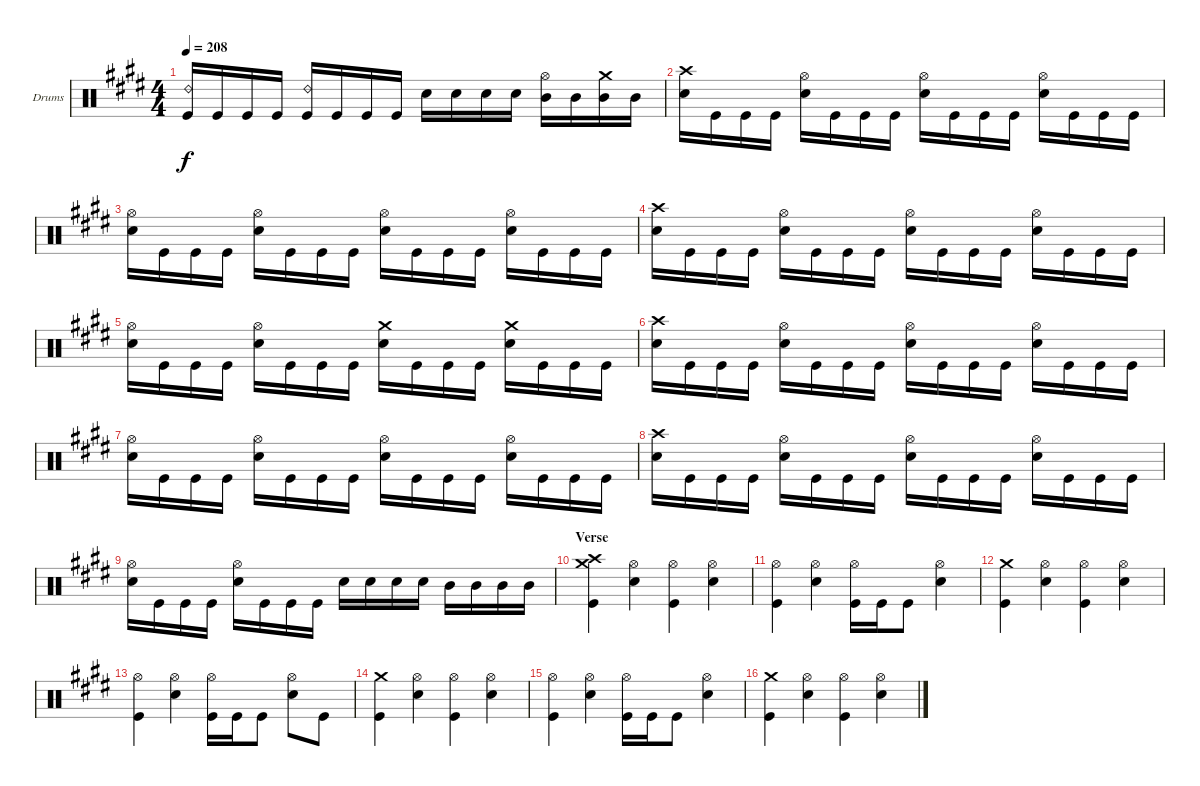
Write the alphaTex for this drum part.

\defaultSystemsLayout 4
\bracketExtendMode groupsimilarinstruments
\firstSystemTrackNameOrientation horizontal
\otherSystemsTrackNameOrientation horizontal
\track ("Corey Friedlander - Drums" "Drums") {instrument percussion}
\staff {score}
\articulation defaults
\ts (4 4)
\tempo 208
\clef neutral
\ks c#minor
("Kick (hit)" "Ride (bell) 2").16{dy f} "Kick (hit)".16 "Kick (hit)".16 "Kick (hit)".16 ("Kick (hit)" "Ride (bell) 2").16 "Kick (hit)".16 "Kick (hit)".16 "Kick (hit)".16 "Snare (hit) 2".16 "Snare (hit) 2".16 "Snare (hit) 2".16 "Snare (hit) 2".16 ("Mid Tom (hit)" "Hi-Hat (open)").16 "Mid Tom (hit)".16 ("Mid Tom (hit)" "Crash medium (hit)").16 "Mid Tom (hit)".16 |
("Snare (hit) 2" "Crash high (hit)").16 "Kick (hit)".16 "Kick (hit)".16 "Kick (hit)".16 ("Snare (hit) 2" "Hi-Hat (open)").16 "Kick (hit)".16 "Kick (hit)".16 "Kick (hit)".16 ("Snare (hit) 2" "Hi-Hat (open)").16 "Kick (hit)".16 "Kick (hit)".16 "Kick (hit)".16 ("Snare (hit) 2" "Hi-Hat (open)").16 "Kick (hit)".16 "Kick (hit)".16 "Kick (hit)".16 |
("Snare (hit) 2" "Hi-Hat (open)").16 "Kick (hit)".16 "Kick (hit)".16 "Kick (hit)".16 ("Snare (hit) 2" "Hi-Hat (open)").16 "Kick (hit)".16 "Kick (hit)".16 "Kick (hit)".16 ("Snare (hit) 2" "Hi-Hat (open)").16 "Kick (hit)".16 "Kick (hit)".16 "Kick (hit)".16 ("Snare (hit) 2" "Hi-Hat (open)").16 "Kick (hit)".16 "Kick (hit)".16 "Kick (hit)".16 |
("Snare (hit) 2" "Crash high (hit)").16 "Kick (hit)".16 "Kick (hit)".16 "Kick (hit)".16 ("Snare (hit) 2" "Hi-Hat (open)").16 "Kick (hit)".16 "Kick (hit)".16 "Kick (hit)".16 ("Snare (hit) 2" "Hi-Hat (open)").16 "Kick (hit)".16 "Kick (hit)".16 "Kick (hit)".16 ("Snare (hit) 2" "Hi-Hat (open)").16 "Kick (hit)".16 "Kick (hit)".16 "Kick (hit)".16 |
("Snare (hit) 2" "Hi-Hat (open)").16 "Kick (hit)".16 "Kick (hit)".16 "Kick (hit)".16 ("Snare (hit) 2" "Hi-Hat (open)").16 "Kick (hit)".16 "Kick (hit)".16 "Kick (hit)".16 ("Snare (hit) 2" "Crash medium (hit)").16 "Kick (hit)".16 "Kick (hit)".16 "Kick (hit)".16 ("Snare (hit) 2" "Crash medium (hit)").16 "Kick (hit)".16 "Kick (hit)".16 "Kick (hit)".16 |
("Snare (hit) 2" "Crash high (hit)").16 "Kick (hit)".16 "Kick (hit)".16 "Kick (hit)".16 ("Snare (hit) 2" "Hi-Hat (open)").16 "Kick (hit)".16 "Kick (hit)".16 "Kick (hit)".16 ("Snare (hit) 2" "Hi-Hat (open)").16 "Kick (hit)".16 "Kick (hit)".16 "Kick (hit)".16 ("Snare (hit) 2" "Hi-Hat (open)").16 "Kick (hit)".16 "Kick (hit)".16 "Kick (hit)".16 |
("Snare (hit) 2" "Hi-Hat (open)").16 "Kick (hit)".16 "Kick (hit)".16 "Kick (hit)".16 ("Snare (hit) 2" "Hi-Hat (open)").16 "Kick (hit)".16 "Kick (hit)".16 "Kick (hit)".16 ("Snare (hit) 2" "Hi-Hat (open)").16 "Kick (hit)".16 "Kick (hit)".16 "Kick (hit)".16 ("Snare (hit) 2" "Hi-Hat (open)").16 "Kick (hit)".16 "Kick (hit)".16 "Kick (hit)".16 |
("Snare (hit) 2" "Crash high (hit)").16 "Kick (hit)".16 "Kick (hit)".16 "Kick (hit)".16 ("Snare (hit) 2" "Hi-Hat (open)").16 "Kick (hit)".16 "Kick (hit)".16 "Kick (hit)".16 ("Snare (hit) 2" "Hi-Hat (open)").16 "Kick (hit)".16 "Kick (hit)".16 "Kick (hit)".16 ("Snare (hit) 2" "Hi-Hat (open)").16 "Kick (hit)".16 "Kick (hit)".16 "Kick (hit)".16 |
("Snare (hit) 2" "Hi-Hat (open)").16 "Kick (hit)".16 "Kick (hit)".16 "Kick (hit)".16 ("Snare (hit) 2" "Hi-Hat (open)").16 "Kick (hit)".16 "Kick (hit)".16 "Kick (hit)".16 "Snare (hit) 2".16 "Snare (hit) 2".16 "Snare (hit) 2".16 "Snare (hit) 2".16 "Mid Tom (hit)".16 "Mid Tom (hit)".16 "Mid Tom (hit)".16 "Mid Tom (hit)".16 |
\section ("" "Verse")
("Kick (hit)" "Crash medium (hit)" "Crash high (hit)").4 ("Snare (hit) 2" "Hi-Hat (open)").4 ("Hi-Hat (open)" "Kick (hit)").4 ("Snare (hit) 2" "Hi-Hat (open)").4 |
("Hi-Hat (open)" "Kick (hit)").4 ("Snare (hit) 2" "Hi-Hat (open)").4 ("Kick (hit)" "Hi-Hat (open)").16 "Kick (hit)".16 "Kick (hit)".8 ("Hi-Hat (open)" "Snare (hit) 2").4 |
("Kick (hit)" "Crash medium (hit)").4 ("Snare (hit) 2" "Hi-Hat (open)").4 ("Hi-Hat (open)" "Kick (hit)").4 ("Snare (hit) 2" "Hi-Hat (open)").4 |
("Hi-Hat (open)" "Kick (hit)").4 ("Snare (hit) 2" "Hi-Hat (open)").4 ("Kick (hit)" "Hi-Hat (open)").16 "Kick (hit)".16 "Kick (hit)".8 ("Hi-Hat (open)" "Snare (hit) 2").8 "Kick (hit)".8 |
("Kick (hit)" "Crash medium (hit)").4 ("Snare (hit) 2" "Hi-Hat (open)").4 ("Hi-Hat (open)" "Kick (hit)").4 ("Snare (hit) 2" "Hi-Hat (open)").4 |
("Hi-Hat (open)" "Kick (hit)").4 ("Snare (hit) 2" "Hi-Hat (open)").4 ("Kick (hit)" "Hi-Hat (open)").16 "Kick (hit)".16 "Kick (hit)".8 ("Hi-Hat (open)" "Snare (hit) 2").4 |
("Kick (hit)" "Crash medium (hit)").4 ("Snare (hit) 2" "Hi-Hat (open)").4 ("Hi-Hat (open)" "Kick (hit)").4 ("Snare (hit) 2" "Hi-Hat (open)").4
